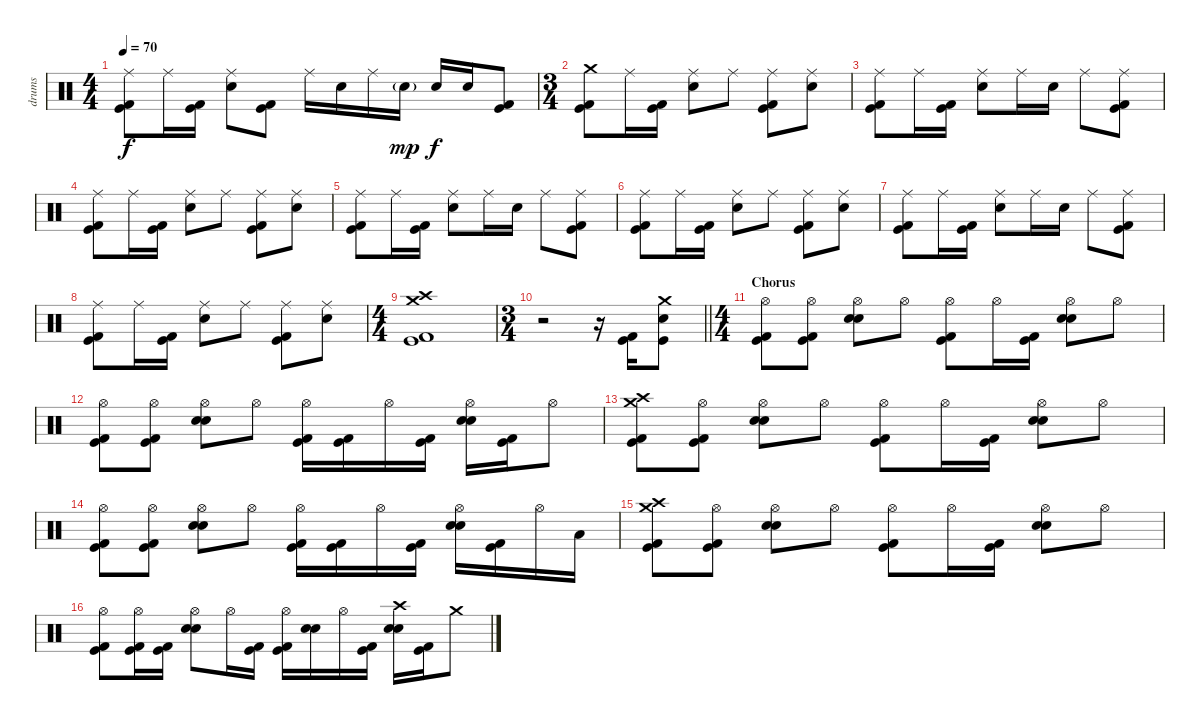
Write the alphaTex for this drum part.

\track ("drums" "drums") {instrument percussion}
\staff {score}
\articulation defaults
\ts (4 4)
\tempo 70
\clef neutral
\ks c
("Ride (middle)" "Kick (hit)" "Kick (hit) 2").8{dy f} "Ride (middle)".16 ("Kick (hit)" "Kick (hit) 2").16 ("Ride (middle)" "Electric Snare (hit)").8 ("Kick (hit)" "Kick (hit) 2").8 "Ride (middle)".16 "Electric Snare (hit)".16 "Ride (middle)".16 "Electric Snare (hit)"{g}.16{dy mp} "Electric Snare (hit)".16{dy f} "Electric Snare (hit)".16 ("Kick (hit)" "Kick (hit) 2").8 |
\ts (3 4)
("Crash medium (hit)" "Kick (hit)" "Kick (hit) 2").8 "Ride (middle)".16 ("Kick (hit)" "Kick (hit) 2").16 ("Ride (middle)" "Electric Snare (hit)").8 "Ride (middle)".8 ("Ride (middle)" "Kick (hit)" "Kick (hit) 2").8 ("Ride (middle)" "Electric Snare (hit)").8 |
("Ride (middle)" "Kick (hit)" "Kick (hit) 2").8 "Ride (middle)".16 ("Kick (hit)" "Kick (hit) 2").16 ("Ride (middle)" "Electric Snare (hit)").8 "Ride (middle)".16 "Electric Snare (hit)".16 "Ride (middle)".8 ("Ride (middle)" "Kick (hit)" "Kick (hit) 2").8 |
("Ride (middle)" "Kick (hit)" "Kick (hit) 2").8 "Ride (middle)".16 ("Kick (hit)" "Kick (hit) 2").16 ("Ride (middle)" "Electric Snare (hit)").8 "Ride (middle)".8 ("Ride (middle)" "Kick (hit)" "Kick (hit) 2").8 ("Ride (middle)" "Electric Snare (hit)").8 |
("Ride (middle)" "Kick (hit)" "Kick (hit) 2").8 "Ride (middle)".16 ("Kick (hit)" "Kick (hit) 2").16 ("Ride (middle)" "Electric Snare (hit)").8 "Ride (middle)".16 "Electric Snare (hit)".16 "Ride (middle)".8 ("Ride (middle)" "Kick (hit)" "Kick (hit) 2").8 |
("Ride (middle)" "Kick (hit)" "Kick (hit) 2").8 "Ride (middle)".16 ("Kick (hit)" "Kick (hit) 2").16 ("Ride (middle)" "Electric Snare (hit)").8 "Ride (middle)".8 ("Ride (middle)" "Kick (hit)" "Kick (hit) 2").8 ("Ride (middle)" "Electric Snare (hit)").8 |
("Ride (middle)" "Kick (hit)" "Kick (hit) 2").8 "Ride (middle)".16 ("Kick (hit)" "Kick (hit) 2").16 ("Ride (middle)" "Electric Snare (hit)").8 "Ride (middle)".16 "Electric Snare (hit)".16 "Ride (middle)".8 ("Ride (middle)" "Kick (hit)" "Kick (hit) 2").8 |
("Ride (middle)" "Kick (hit)" "Kick (hit) 2").8 "Ride (middle)".16 ("Kick (hit)" "Kick (hit) 2").16 ("Ride (middle)" "Electric Snare (hit)").8 "Ride (middle)".8 ("Ride (middle)" "Kick (hit)" "Kick (hit) 2").8 ("Ride (middle)" "Electric Snare (hit)").8 |
\ts (4 4)
("Crash high (hit)" "Crash medium (hit)" "Kick (hit)" "Kick (hit) 2").1 |
\ts (3 4)
\barLineRight lightlight
r.2 r.16 ("Kick (hit) 2" "Kick (hit)").16 ("Crash medium (hit)" "Kick (hit)" "Electric Snare (hit)").8 |
\ts (4 4)
\section ("" "Chorus")
("Hi-Hat (open)" "Kick (hit) 2" "Kick (hit)").8 ("Hi-Hat (open)" "Kick (hit) 2" "Kick (hit)").8 ("Hi-Hat (open)" "Electric Snare (hit)" "Electric Snare (hit)").8 "Hi-Hat (open)".8 ("Hi-Hat (open)" "Kick (hit) 2" "Kick (hit)").8 "Hi-Hat (open)".16 ("Kick (hit) 2" "Kick (hit)").16 ("Hi-Hat (open)" "Electric Snare (hit)" "Electric Snare (hit)").8 "Hi-Hat (open)".8 |
("Hi-Hat (open)" "Kick (hit) 2" "Kick (hit)").8 ("Hi-Hat (open)" "Kick (hit) 2" "Kick (hit)").8 ("Hi-Hat (open)" "Electric Snare (hit)" "Electric Snare (hit)").8 "Hi-Hat (open)".8 ("Hi-Hat (open)" "Kick (hit) 2" "Kick (hit)").16 ("Kick (hit) 2" "Kick (hit)").16 "Hi-Hat (open)".16 ("Kick (hit) 2" "Kick (hit)").16 ("Hi-Hat (open)" "Electric Snare (hit)" "Electric Snare (hit)").16 ("Kick (hit) 2" "Kick (hit)").16 "Hi-Hat (open)".8 |
("Crash high (hit)" "Crash medium (hit)" "Kick (hit) 2" "Kick (hit)").8 ("Hi-Hat (open)" "Kick (hit) 2" "Kick (hit)").8 ("Hi-Hat (open)" "Electric Snare (hit)" "Electric Snare (hit)").8 "Hi-Hat (open)".8 ("Hi-Hat (open)" "Kick (hit) 2" "Kick (hit)").8 "Hi-Hat (open)".16 ("Kick (hit) 2" "Kick (hit)").16 ("Hi-Hat (open)" "Electric Snare (hit)" "Electric Snare (hit)").8 "Hi-Hat (open)".8 |
("Hi-Hat (open)" "Kick (hit) 2" "Kick (hit)").8 ("Hi-Hat (open)" "Kick (hit) 2" "Kick (hit)").8 ("Hi-Hat (open)" "Electric Snare (hit)" "Electric Snare (hit)").8 "Hi-Hat (open)".8 ("Hi-Hat (open)" "Kick (hit) 2" "Kick (hit)").16 ("Kick (hit) 2" "Kick (hit)").16 "Hi-Hat (open)".16 ("Kick (hit) 2" "Kick (hit)").16 ("Hi-Hat (open)" "Electric Snare (hit)" "Electric Snare (hit)").16 ("Kick (hit) 2" "Kick (hit)").16 "Hi-Hat (open)".16 "Low Floor Tom (hit)".16 |
("Crash high (hit)" "Crash medium (hit)" "Kick (hit) 2" "Kick (hit)").8 ("Hi-Hat (open)" "Kick (hit) 2" "Kick (hit)").8 ("Hi-Hat (open)" "Electric Snare (hit)" "Electric Snare (hit)").8 "Hi-Hat (open)".8 ("Hi-Hat (open)" "Kick (hit) 2" "Kick (hit)").8 "Hi-Hat (open)".16 ("Kick (hit) 2" "Kick (hit)").16 ("Hi-Hat (open)" "Electric Snare (hit)" "Electric Snare (hit)").8 "Hi-Hat (open)".8 |
("Hi-Hat (open)" "Kick (hit) 2" "Kick (hit)").8 ("Hi-Hat (open)" "Kick (hit) 2" "Kick (hit)").16 ("Kick (hit) 2" "Kick (hit)").16 ("Hi-Hat (open)" "Electric Snare (hit)" "Electric Snare (hit)").8 "Hi-Hat (open)".16 ("Kick (hit) 2" "Kick (hit)").16 ("Hi-Hat (open)" "Kick (hit)" "Kick (hit) 2").16 ("Electric Snare (hit)" "Electric Snare (hit)").16 "Hi-Hat (open)".16 ("Kick (hit)" "Kick (hit) 2").16 ("Crash high (hit)" "Electric Snare (hit)" "Electric Snare (hit)").16 ("Kick (hit) 2" "Kick (hit)").16 "Crash medium (hit)".8
